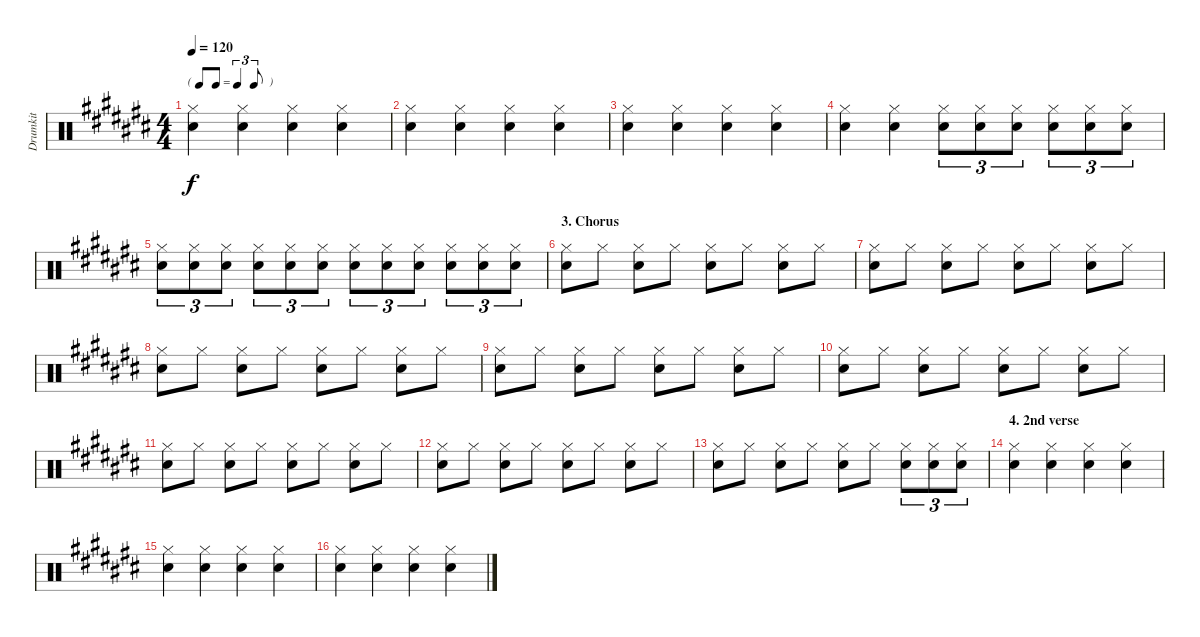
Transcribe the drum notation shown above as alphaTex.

\track ("Drumkit" "Drumkit") {instrument percussion}
\staff {score}
\articulation defaults
\ts (4 4)
\tf triplet8th
\tempo 120
\clef neutral
\ks c#
("Snare (hit) 2" "Hi-Hat (closed)").4{dy f} ("Snare (hit) 2" "Hi-Hat (closed)").4 ("Snare (hit) 2" "Hi-Hat (closed)").4 ("Snare (hit) 2" "Hi-Hat (closed)").4 |
("Snare (hit) 2" "Hi-Hat (closed)").4 ("Snare (hit) 2" "Hi-Hat (closed)").4 ("Snare (hit) 2" "Hi-Hat (closed)").4 ("Snare (hit) 2" "Hi-Hat (closed)").4 |
("Snare (hit) 2" "Hi-Hat (closed)").4 ("Snare (hit) 2" "Hi-Hat (closed)").4 ("Snare (hit) 2" "Hi-Hat (closed)").4 ("Snare (hit) 2" "Hi-Hat (closed)").4 |
("Snare (hit) 2" "Hi-Hat (closed)").4 ("Snare (hit) 2" "Hi-Hat (closed)").4 ("Snare (hit) 2" "Hi-Hat (closed)").8{tu (3 2)} ("Snare (hit) 2" "Hi-Hat (closed)").8{tu (3 2)} ("Snare (hit) 2" "Hi-Hat (closed)").8{tu (3 2)} ("Snare (hit) 2" "Hi-Hat (closed)").8{tu (3 2)} ("Snare (hit) 2" "Hi-Hat (closed)").8{tu (3 2)} ("Snare (hit) 2" "Hi-Hat (closed)").8{tu (3 2)} |
("Snare (hit) 2" "Hi-Hat (closed)").8{tu (3 2)} ("Snare (hit) 2" "Hi-Hat (closed)").8{tu (3 2)} ("Snare (hit) 2" "Hi-Hat (closed)").8{tu (3 2)} ("Snare (hit) 2" "Hi-Hat (closed)").8{tu (3 2)} ("Snare (hit) 2" "Hi-Hat (closed)").8{tu (3 2)} ("Snare (hit) 2" "Hi-Hat (closed)").8{tu (3 2)} ("Snare (hit) 2" "Hi-Hat (closed)").8{tu (3 2)} ("Snare (hit) 2" "Hi-Hat (closed)").8{tu (3 2)} ("Snare (hit) 2" "Hi-Hat (closed)").8{tu (3 2)} ("Snare (hit) 2" "Hi-Hat (closed)").8{tu (3 2)} ("Snare (hit) 2" "Hi-Hat (closed)").8{tu (3 2)} ("Snare (hit) 2" "Hi-Hat (closed)").8{tu (3 2)} |
\section ("" "3. Chorus")
("Snare (hit) 2" "Hi-Hat (closed)").8 "Hi-Hat (closed)".8 ("Snare (hit) 2" "Hi-Hat (closed)").8 "Hi-Hat (closed)".8 ("Snare (hit) 2" "Hi-Hat (closed)").8 "Hi-Hat (closed)".8 ("Snare (hit) 2" "Hi-Hat (closed)").8 "Hi-Hat (closed)".8 |
("Snare (hit) 2" "Hi-Hat (closed)").8 "Hi-Hat (closed)".8 ("Snare (hit) 2" "Hi-Hat (closed)").8 "Hi-Hat (closed)".8 ("Snare (hit) 2" "Hi-Hat (closed)").8 "Hi-Hat (closed)".8 ("Snare (hit) 2" "Hi-Hat (closed)").8 "Hi-Hat (closed)".8 |
("Snare (hit) 2" "Hi-Hat (closed)").8 "Hi-Hat (closed)".8 ("Snare (hit) 2" "Hi-Hat (closed)").8 "Hi-Hat (closed)".8 ("Snare (hit) 2" "Hi-Hat (closed)").8 "Hi-Hat (closed)".8 ("Snare (hit) 2" "Hi-Hat (closed)").8 "Hi-Hat (closed)".8 |
("Snare (hit) 2" "Hi-Hat (closed)").8 "Hi-Hat (closed)".8 ("Snare (hit) 2" "Hi-Hat (closed)").8 "Hi-Hat (closed)".8 ("Snare (hit) 2" "Hi-Hat (closed)").8 "Hi-Hat (closed)".8 ("Snare (hit) 2" "Hi-Hat (closed)").8 "Hi-Hat (closed)".8 |
("Snare (hit) 2" "Hi-Hat (closed)").8 "Hi-Hat (closed)".8 ("Snare (hit) 2" "Hi-Hat (closed)").8 "Hi-Hat (closed)".8 ("Snare (hit) 2" "Hi-Hat (closed)").8 "Hi-Hat (closed)".8 ("Snare (hit) 2" "Hi-Hat (closed)").8 "Hi-Hat (closed)".8 |
("Snare (hit) 2" "Hi-Hat (closed)").8 "Hi-Hat (closed)".8 ("Snare (hit) 2" "Hi-Hat (closed)").8 "Hi-Hat (closed)".8 ("Snare (hit) 2" "Hi-Hat (closed)").8 "Hi-Hat (closed)".8 ("Snare (hit) 2" "Hi-Hat (closed)").8 "Hi-Hat (closed)".8 |
("Snare (hit) 2" "Hi-Hat (closed)").8 "Hi-Hat (closed)".8 ("Snare (hit) 2" "Hi-Hat (closed)").8 "Hi-Hat (closed)".8 ("Snare (hit) 2" "Hi-Hat (closed)").8 "Hi-Hat (closed)".8 ("Snare (hit) 2" "Hi-Hat (closed)").8 "Hi-Hat (closed)".8 |
("Snare (hit) 2" "Hi-Hat (closed)").8 "Hi-Hat (closed)".8 ("Snare (hit) 2" "Hi-Hat (closed)").8 "Hi-Hat (closed)".8 ("Snare (hit) 2" "Hi-Hat (closed)").8 "Hi-Hat (closed)".8 ("Hi-Hat (closed)" "Snare (hit) 2").8{tu (3 2)} ("Hi-Hat (closed)" "Snare (hit) 2").8{tu (3 2)} ("Hi-Hat (closed)" "Snare (hit) 2").8{tu (3 2)} |
\section ("" "4. 2nd verse")
("Snare (hit) 2" "Hi-Hat (closed)").4 ("Snare (hit) 2" "Hi-Hat (closed)").4 ("Snare (hit) 2" "Hi-Hat (closed)").4 ("Snare (hit) 2" "Hi-Hat (closed)").4 |
("Snare (hit) 2" "Hi-Hat (closed)").4 ("Snare (hit) 2" "Hi-Hat (closed)").4 ("Snare (hit) 2" "Hi-Hat (closed)").4 ("Snare (hit) 2" "Hi-Hat (closed)").4 |
("Snare (hit) 2" "Hi-Hat (closed)").4 ("Snare (hit) 2" "Hi-Hat (closed)").4 ("Snare (hit) 2" "Hi-Hat (closed)").4 ("Snare (hit) 2" "Hi-Hat (closed)").4
